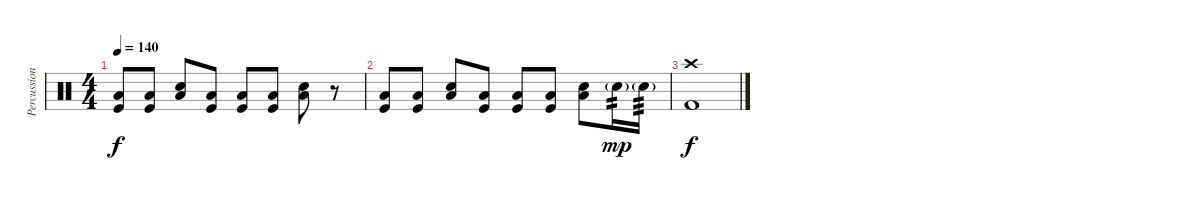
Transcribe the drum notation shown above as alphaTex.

\track ("Percussion" "Percussion") {instrument percussion}
\staff {score}
\articulation defaults
\ts (4 4)
\tempo 140
\clef neutral
\ks c
("Low Floor Tom (hit)" "Kick (hit)").8{dy f} ("Low Floor Tom (hit)" "Kick (hit)").8 ("Low Tom (hit)" "Snare (hit) 2").8 ("Low Floor Tom (hit)" "Kick (hit)").8 ("Low Floor Tom (hit)" "Kick (hit)").8 ("Low Floor Tom (hit)" "Kick (hit)").8 ("Low Tom (hit)" "Snare (hit) 2").8 r.8 |
("Low Floor Tom (hit)" "Kick (hit)").8 ("Low Floor Tom (hit)" "Kick (hit)").8 ("Low Tom (hit)" "Snare (hit) 2").8 ("Low Floor Tom (hit)" "Kick (hit)").8 ("Low Floor Tom (hit)" "Kick (hit)").8 ("Low Floor Tom (hit)" "Kick (hit)").8 ("Low Tom (hit)" "Snare (hit) 2").8 "Snare (hit) 2"{g}.16{tp 2 dy mp} "Snare (hit) 2"{g}.16{tp 3} |
("Crash high (hit)" "Kick (hit) 2").1{dy f}
